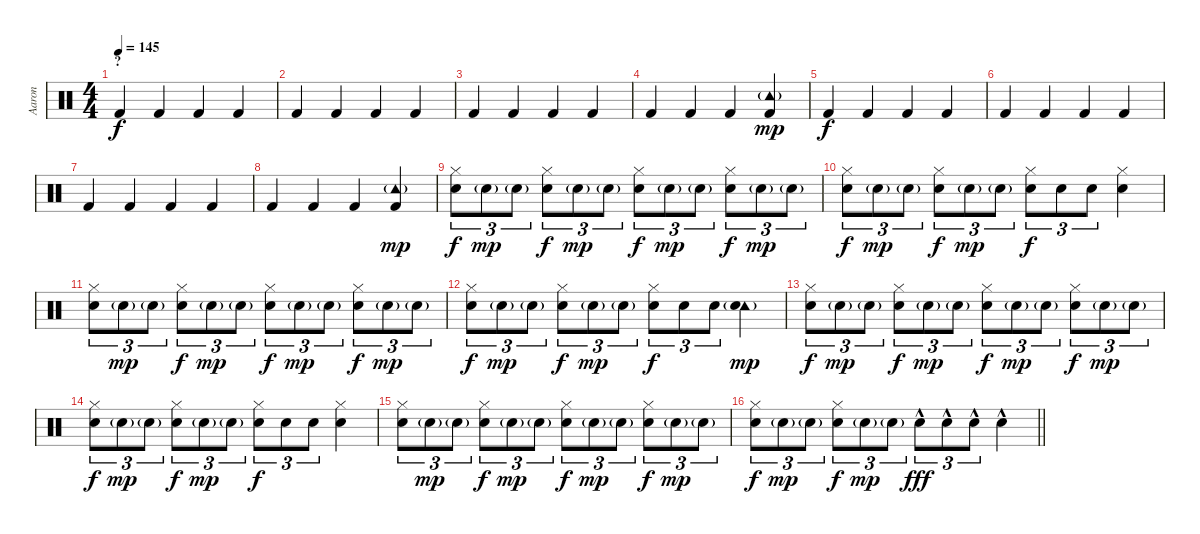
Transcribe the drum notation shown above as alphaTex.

\track ("Aaron" "Aaron") {instrument percussion}
\staff {score}
\articulation defaults
\ts (4 4)
\section ("" "?")
\tempo 145
\clef neutral
\ks c "Kick (hit) 2".4{dy f} "Kick (hit) 2".4 "Kick (hit) 2".4 "Kick (hit) 2".4
|
"Kick (hit) 2".4 "Kick (hit) 2".4 "Kick (hit) 2".4 "Kick (hit) 2".4 |
"Kick (hit) 2".4 "Kick (hit) 2".4 "Kick (hit) 2".4 "Kick (hit) 2".4 |
"Kick (hit) 2".4 "Kick (hit) 2".4 "Kick (hit) 2".4 ("Tambourine (hit)"{g} "Kick (hit) 2").4{dy mp} |
"Kick (hit) 2".4{dy f} "Kick (hit) 2".4 "Kick (hit) 2".4 "Kick (hit) 2".4 |
"Kick (hit) 2".4 "Kick (hit) 2".4 "Kick (hit) 2".4 "Kick (hit) 2".4 |
"Kick (hit) 2".4 "Kick (hit) 2".4 "Kick (hit) 2".4 "Kick (hit) 2".4 |
"Kick (hit) 2".4 "Kick (hit) 2".4 "Kick (hit) 2".4 ("Tambourine (hit)"{g} "Kick (hit) 2").4{dy mp} |
("Hi-Hat (closed)" "Electric Snare (hit)").8{tu (3 2) dy f} "Electric Snare (hit)"{g}.8{tu (3 2) dy mp} "Electric Snare (hit)"{g}.8{tu (3 2)} ("Hi-Hat (closed)" "Electric Snare (hit)").8{tu (3 2) dy f} "Electric Snare (hit)"{g}.8{tu (3 2) dy mp} "Electric Snare (hit)"{g}.8{tu (3 2)} ("Hi-Hat (closed)" "Electric Snare (hit)").8{tu (3 2) dy f} "Electric Snare (hit)"{g}.8{tu (3 2) dy mp} "Electric Snare (hit)"{g}.8{tu (3 2)} ("Hi-Hat (closed)" "Electric Snare (hit)").8{tu (3 2) dy f} "Electric Snare (hit)"{g}.8{tu (3 2) dy mp} "Electric Snare (hit)"{g}.8{tu (3 2)} |
("Hi-Hat (closed)" "Electric Snare (hit)").8{tu (3 2) dy f} "Electric Snare (hit)"{g}.8{tu (3 2) dy mp} "Electric Snare (hit)"{g}.8{tu (3 2)} ("Hi-Hat (closed)" "Electric Snare (hit)").8{tu (3 2) dy f} "Electric Snare (hit)"{g}.8{tu (3 2) dy mp} "Electric Snare (hit)"{g}.8{tu (3 2)} ("Hi-Hat (closed)" "Electric Snare (hit)").8{tu (3 2) dy f} "Electric Snare (hit)".8{tu (3 2)} "Electric Snare (hit)".8{tu (3 2)} ("Hi-Hat (closed)" "Electric Snare (hit)").4 |
("Hi-Hat (closed)" "Electric Snare (hit)").8{tu (3 2)} "Electric Snare (hit)"{g}.8{tu (3 2) dy mp} "Electric Snare (hit)"{g}.8{tu (3 2)} ("Hi-Hat (closed)" "Electric Snare (hit)").8{tu (3 2) dy f} "Electric Snare (hit)"{g}.8{tu (3 2) dy mp} "Electric Snare (hit)"{g}.8{tu (3 2)} ("Hi-Hat (closed)" "Electric Snare (hit)").8{tu (3 2) dy f} "Electric Snare (hit)"{g}.8{tu (3 2) dy mp} "Electric Snare (hit)"{g}.8{tu (3 2)} ("Hi-Hat (closed)" "Electric Snare (hit)").8{tu (3 2) dy f} "Electric Snare (hit)"{g}.8{tu (3 2) dy mp} "Electric Snare (hit)"{g}.8{tu (3 2)} |
("Hi-Hat (closed)" "Electric Snare (hit)").8{tu (3 2) dy f} "Electric Snare (hit)"{g}.8{tu (3 2) dy mp} "Electric Snare (hit)"{g}.8{tu (3 2)} ("Hi-Hat (closed)" "Electric Snare (hit)").8{tu (3 2) dy f} "Electric Snare (hit)"{g}.8{tu (3 2) dy mp} "Electric Snare (hit)"{g}.8{tu (3 2)} ("Hi-Hat (closed)" "Electric Snare (hit)").8{tu (3 2) dy f} "Electric Snare (hit)".8{tu (3 2)} "Electric Snare (hit)".8{tu (3 2)} ("Tambourine (hit)"{g} "Electric Snare (hit)").4{dy mp} |
("Hi-Hat (closed)" "Electric Snare (hit)").8{tu (3 2) dy f} "Electric Snare (hit)"{g}.8{tu (3 2) dy mp} "Electric Snare (hit)"{g}.8{tu (3 2)} ("Hi-Hat (closed)" "Electric Snare (hit)").8{tu (3 2) dy f} "Electric Snare (hit)"{g}.8{tu (3 2) dy mp} "Electric Snare (hit)"{g}.8{tu (3 2)} ("Hi-Hat (closed)" "Electric Snare (hit)").8{tu (3 2) dy f} "Electric Snare (hit)"{g}.8{tu (3 2) dy mp} "Electric Snare (hit)"{g}.8{tu (3 2)} ("Hi-Hat (closed)" "Electric Snare (hit)").8{tu (3 2) dy f} "Electric Snare (hit)"{g}.8{tu (3 2) dy mp} "Electric Snare (hit)"{g}.8{tu (3 2)} |
("Hi-Hat (closed)" "Electric Snare (hit)").8{tu (3 2) dy f} "Electric Snare (hit)"{g}.8{tu (3 2) dy mp} "Electric Snare (hit)"{g}.8{tu (3 2)} ("Hi-Hat (closed)" "Electric Snare (hit)").8{tu (3 2) dy f} "Electric Snare (hit)"{g}.8{tu (3 2) dy mp} "Electric Snare (hit)"{g}.8{tu (3 2)} ("Hi-Hat (closed)" "Electric Snare (hit)").8{tu (3 2) dy f} "Electric Snare (hit)".8{tu (3 2)} "Electric Snare (hit)".8{tu (3 2)} ("Hi-Hat (closed)" "Electric Snare (hit)").4 |
("Hi-Hat (closed)" "Electric Snare (hit)").8{tu (3 2)} "Electric Snare (hit)"{g}.8{tu (3 2) dy mp} "Electric Snare (hit)"{g}.8{tu (3 2)} ("Hi-Hat (closed)" "Electric Snare (hit)").8{tu (3 2) dy f} "Electric Snare (hit)"{g}.8{tu (3 2) dy mp} "Electric Snare (hit)"{g}.8{tu (3 2)} ("Hi-Hat (closed)" "Electric Snare (hit)").8{tu (3 2) dy f} "Electric Snare (hit)"{g}.8{tu (3 2) dy mp} "Electric Snare (hit)"{g}.8{tu (3 2)} ("Hi-Hat (closed)" "Electric Snare (hit)").8{tu (3 2) dy f} "Electric Snare (hit)"{g}.8{tu (3 2) dy mp} "Electric Snare (hit)"{g}.8{tu (3 2)} |
\barLineRight lightlight
("Hi-Hat (closed)" "Electric Snare (hit)").8{tu (3 2) dy f} "Electric Snare (hit)"{g}.8{tu (3 2) dy mp} "Electric Snare (hit)"{g}.8{tu (3 2)} ("Hi-Hat (closed)" "Electric Snare (hit)").8{tu (3 2) dy f} "Electric Snare (hit)"{g}.8{tu (3 2) dy mp} "Electric Snare (hit)"{g}.8{tu (3 2)} "Electric Snare (hit)"{hac}.8{tu (3 2) dy fff} "Electric Snare (hit)"{hac}.8{tu (3 2)} "Electric Snare (hit)"{hac}.8{tu (3 2)} "Electric Snare (hit)"{hac}.4
